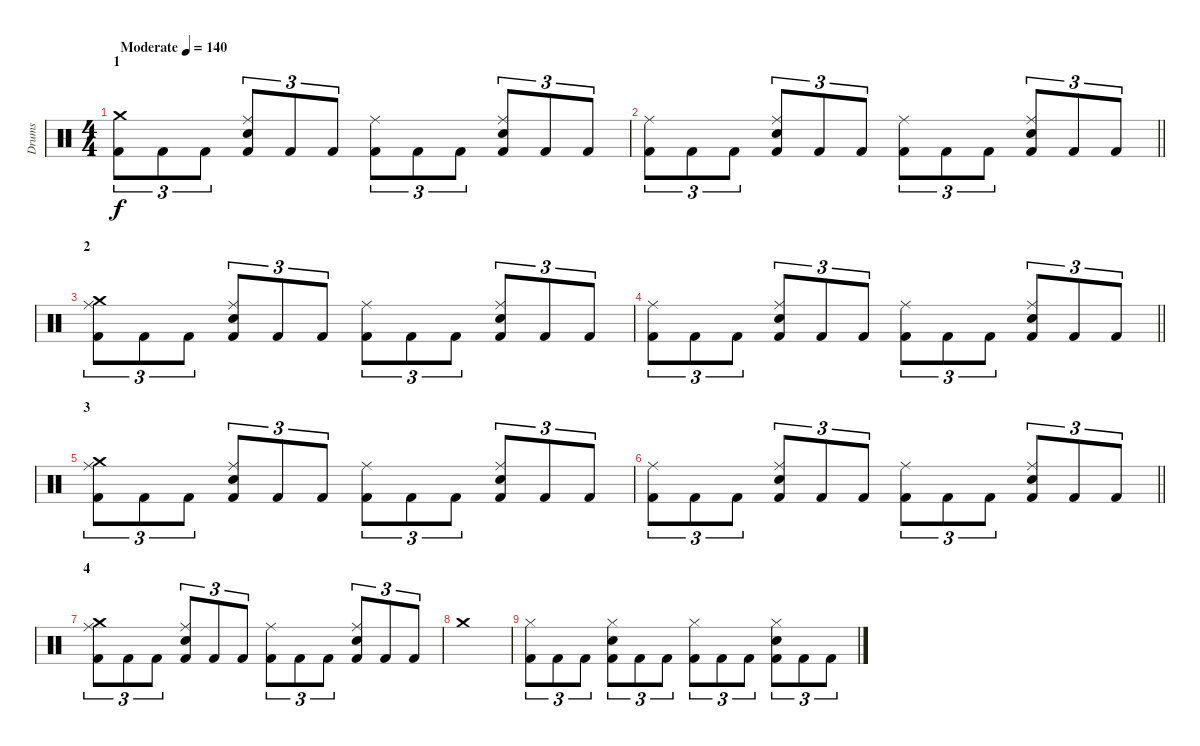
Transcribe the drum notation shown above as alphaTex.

\track ("Drums" "Drums") {instrument percussion}
\staff {score}
\articulation defaults
\ts (4 4)
\section ("" "1")
\tempo (140 "Moderate")
\clef neutral
\ks c
("Crash medium (hit)" "Kick (hit) 2").8{tu (3 2) dy f} "Kick (hit) 2".8{tu (3 2)} "Kick (hit) 2".8{tu (3 2)} ("Ride (middle)" "Snare (hit) 2" "Kick (hit) 2").8{tu (3 2)} "Kick (hit) 2".8{tu (3 2)} "Kick (hit) 2".8{tu (3 2)} ("Ride (middle)" "Kick (hit) 2").8{tu (3 2)} "Kick (hit) 2".8{tu (3 2)} "Kick (hit) 2".8{tu (3 2)} ("Ride (middle)" "Snare (hit) 2" "Kick (hit) 2").8{tu (3 2)} "Kick (hit) 2".8{tu (3 2)} "Kick (hit) 2".8{tu (3 2)} |
\barLineRight lightlight
("Ride (middle)" "Kick (hit) 2").8{tu (3 2)} "Kick (hit) 2".8{tu (3 2)} "Kick (hit) 2".8{tu (3 2)} ("Ride (middle)" "Snare (hit) 2" "Kick (hit) 2").8{tu (3 2)} "Kick (hit) 2".8{tu (3 2)} "Kick (hit) 2".8{tu (3 2)} ("Ride (middle)" "Kick (hit) 2").8{tu (3 2)} "Kick (hit) 2".8{tu (3 2)} "Kick (hit) 2".8{tu (3 2)} ("Ride (middle)" "Snare (hit) 2" "Kick (hit) 2").8{tu (3 2)} "Kick (hit) 2".8{tu (3 2)} "Kick (hit) 2".8{tu (3 2)} |
\section ("" "2")
("Crash medium (hit)" "Ride (middle)" "Kick (hit) 2").8{tu (3 2)} "Kick (hit) 2".8{tu (3 2)} "Kick (hit) 2".8{tu (3 2)} ("Ride (middle)" "Snare (hit) 2" "Kick (hit) 2").8{tu (3 2)} "Kick (hit) 2".8{tu (3 2)} "Kick (hit) 2".8{tu (3 2)} ("Ride (middle)" "Kick (hit) 2").8{tu (3 2)} "Kick (hit) 2".8{tu (3 2)} "Kick (hit) 2".8{tu (3 2)} ("Ride (middle)" "Snare (hit) 2" "Kick (hit) 2").8{tu (3 2)} "Kick (hit) 2".8{tu (3 2)} "Kick (hit) 2".8{tu (3 2)} |
\barLineRight lightlight
("Ride (middle)" "Kick (hit) 2").8{tu (3 2)} "Kick (hit) 2".8{tu (3 2)} "Kick (hit) 2".8{tu (3 2)} ("Ride (middle)" "Snare (hit) 2" "Kick (hit) 2").8{tu (3 2)} "Kick (hit) 2".8{tu (3 2)} "Kick (hit) 2".8{tu (3 2)} ("Ride (middle)" "Kick (hit) 2").8{tu (3 2)} "Kick (hit) 2".8{tu (3 2)} "Kick (hit) 2".8{tu (3 2)} ("Ride (middle)" "Snare (hit) 2" "Kick (hit) 2").8{tu (3 2)} "Kick (hit) 2".8{tu (3 2)} "Kick (hit) 2".8{tu (3 2)} |
\section ("" "3")
("Crash medium (hit)" "Ride (middle)" "Kick (hit) 2").8{tu (3 2)} "Kick (hit) 2".8{tu (3 2)} "Kick (hit) 2".8{tu (3 2)} ("Ride (middle)" "Snare (hit) 2" "Kick (hit) 2").8{tu (3 2)} "Kick (hit) 2".8{tu (3 2)} "Kick (hit) 2".8{tu (3 2)} ("Ride (middle)" "Kick (hit) 2").8{tu (3 2)} "Kick (hit) 2".8{tu (3 2)} "Kick (hit) 2".8{tu (3 2)} ("Ride (middle)" "Snare (hit) 2" "Kick (hit) 2").8{tu (3 2)} "Kick (hit) 2".8{tu (3 2)} "Kick (hit) 2".8{tu (3 2)} |
\barLineRight lightlight
("Ride (middle)" "Kick (hit) 2").8{tu (3 2)} "Kick (hit) 2".8{tu (3 2)} "Kick (hit) 2".8{tu (3 2)} ("Ride (middle)" "Snare (hit) 2" "Kick (hit) 2").8{tu (3 2)} "Kick (hit) 2".8{tu (3 2)} "Kick (hit) 2".8{tu (3 2)} ("Ride (middle)" "Kick (hit) 2").8{tu (3 2)} "Kick (hit) 2".8{tu (3 2)} "Kick (hit) 2".8{tu (3 2)} ("Ride (middle)" "Snare (hit) 2" "Kick (hit) 2").8{tu (3 2)} "Kick (hit) 2".8{tu (3 2)} "Kick (hit) 2".8{tu (3 2)} |
\section ("" "4")
("Crash medium (hit)" "Ride (middle)" "Kick (hit) 2").8{tu (3 2)} "Kick (hit) 2".8{tu (3 2)} "Kick (hit) 2".8{tu (3 2)} ("Ride (middle)" "Snare (hit) 2" "Kick (hit) 2").8{tu (3 2)} "Kick (hit) 2".8{tu (3 2)} "Kick (hit) 2".8{tu (3 2)} ("Ride (middle)" "Kick (hit) 2").8{tu (3 2)} "Kick (hit) 2".8{tu (3 2)} "Kick (hit) 2".8{tu (3 2)} ("Ride (middle)" "Snare (hit) 2" "Kick (hit) 2").8{tu (3 2)} "Kick (hit) 2".8{tu (3 2)} "Kick (hit) 2".8{tu (3 2)} |
"Crash medium (hit)".1 |
("Hi-Hat (closed)" "Kick (hit) 2").8{tu (3 2)} "Kick (hit) 2".8{tu (3 2)} "Kick (hit) 2".8{tu (3 2)} ("Hi-Hat (closed)" "Snare (hit) 2" "Kick (hit) 2").8{tu (3 2)} "Kick (hit) 2".8{tu (3 2)} "Kick (hit) 2".8{tu (3 2)} ("Hi-Hat (closed)" "Kick (hit) 2").8{tu (3 2)} "Kick (hit) 2".8{tu (3 2)} "Kick (hit) 2".8{tu (3 2)} ("Hi-Hat (closed)" "Snare (hit) 2" "Kick (hit) 2").8{tu (3 2)} "Kick (hit) 2".8{tu (3 2)} "Kick (hit) 2".8{tu (3 2)}
